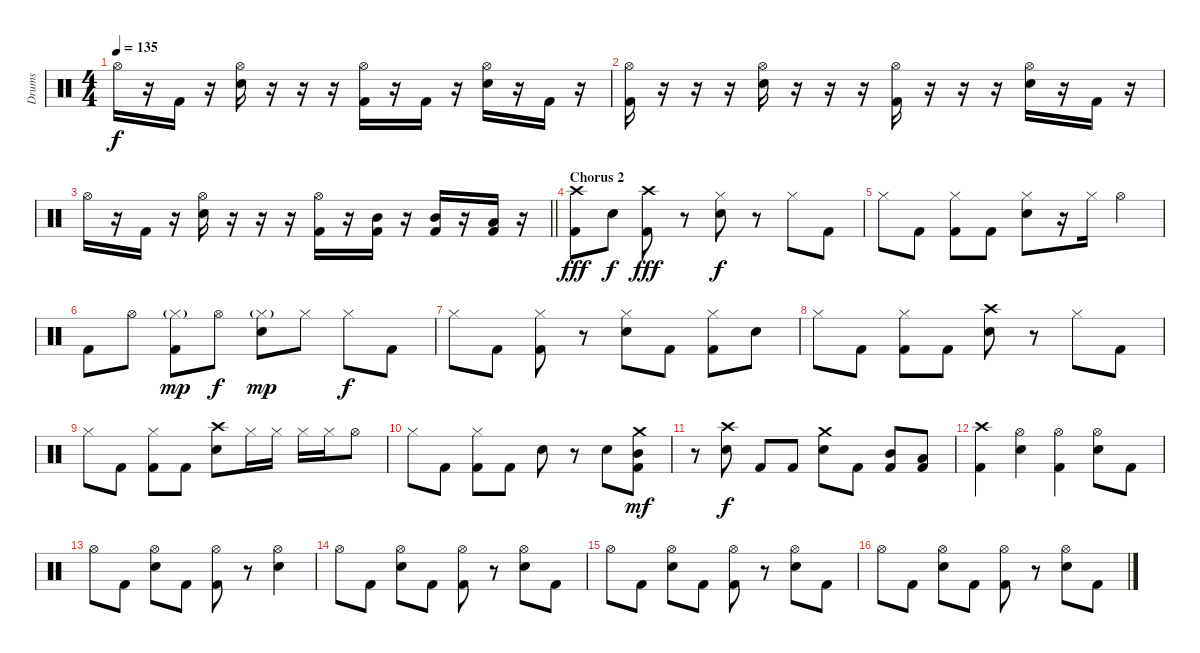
\track ("Drums" "Drums") {instrument percussion}
\staff {score}
\articulation defaults
\ts (4 4)
\tempo 135
\clef neutral
\ks c "Hi-Hat (open)".16{dy f}
r.16 "Kick (hit) 2".16 r.16 ("Hi-Hat (open)" "Electric Snare (hit)").16 r.16 r.16 r.16 ("Hi-Hat (open)" "Kick (hit) 2").16 r.16 "Kick (hit) 2".16 r.16 ("Hi-Hat (open)" "Electric Snare (hit)").16 r.16 "Kick (hit) 2".16 r.16 |
("Hi-Hat (open)" "Kick (hit) 2").16 r.16 r.16 r.16 ("Hi-Hat (open)" "Electric Snare (hit)").16 r.16 r.16 r.16 ("Hi-Hat (open)" "Kick (hit) 2").16 r.16 r.16 r.16 ("Hi-Hat (open)" "Electric Snare (hit)").16 r.16 "Kick (hit) 2".16 r.16 |
\barLineRight lightlight "Hi-Hat (open)".16
r.16 "Kick (hit) 2".16 r.16 ("Hi-Hat (open)" "Electric Snare (hit)").16 r.16 r.16 r.16 ("Hi-Hat (open)" "Kick (hit) 2").16 r.16 ("Mid Tom (hit)" "Kick (hit) 2").16 r.16 ("Mid Tom (hit)" "Kick (hit) 2").16 r.16 ("Low Tom (hit)" "Kick (hit) 2").16 r.16 |
\section ("" "Chorus 2")
("Crash high (hit)" "Kick (hit) 2").8{dy fff} "Electric Snare (hit)".8{dy f} ("Crash high (hit)" "Kick (hit) 2").8{dy fff} r.8 ("Hi-Hat (closed)" "Electric Snare (hit)").8{dy f} r.8 "Hi-Hat (closed)".8 "Kick (hit) 2".8 |
"Hi-Hat (closed)".8 "Kick (hit) 2".8 ("Hi-Hat (closed)" "Kick (hit) 2").8 "Kick (hit) 2".8 ("Hi-Hat (closed)" "Electric Snare (hit)").8 r.16 "Hi-Hat (closed)".16 "Hi-Hat (open)".4 |
"Kick (hit) 2".8 "Hi-Hat (open)".8 ("Hi-Hat (closed)"{g} "Kick (hit) 2").8{dy mp} "Hi-Hat (open)".8{dy f} ("Hi-Hat (closed)"{g} "Electric Snare (hit)").8{dy mp} "Hi-Hat (closed)".8 "Hi-Hat (closed)".8{dy f} "Kick (hit) 2".8 |
"Hi-Hat (closed)".8 "Kick (hit) 2".8 ("Hi-Hat (closed)" "Kick (hit) 2").8 r.8 ("Hi-Hat (closed)" "Electric Snare (hit)").8 "Kick (hit) 2".8 ("Hi-Hat (closed)" "Kick (hit) 2").8 "Electric Snare (hit)".8 |
"Hi-Hat (closed)".8 "Kick (hit) 2".8 ("Hi-Hat (closed)" "Kick (hit) 2").8 "Kick (hit) 2".8 ("Crash high (hit)" "Electric Snare (hit)").8 r.8 "Hi-Hat (closed)".8 "Kick (hit) 2".8 |
"Hi-Hat (closed)".8 "Kick (hit) 2".8 ("Hi-Hat (closed)" "Kick (hit) 2").8 "Kick (hit) 2".8 ("Crash high (hit)" "Electric Snare (hit)").8 "Hi-Hat (closed)".16 "Hi-Hat (closed)".16 "Hi-Hat (closed)".16 "Hi-Hat (closed)".16 "Hi-Hat (open)".8 |
"Hi-Hat (closed)".8 "Kick (hit) 2".8 ("Hi-Hat (closed)" "Kick (hit) 2").8 "Kick (hit) 2".8 "Electric Snare (hit)".8 r.8 "Electric Snare (hit)".8 ("Crash medium (hit)" "Mid Tom (hit)" "Kick (hit) 2").8{dy mf} |
r.8 ("Crash high (hit)" "Electric Snare (hit)").8{dy f} "Kick (hit) 2".8 "Kick (hit) 2".8 ("Crash medium (hit)" "Electric Snare (hit)").8 "Kick (hit) 2".8 ("Mid Tom (hit)" "Kick (hit) 2").8 ("Low Tom (hit)" "Kick (hit) 2").8 |
("Crash high (hit)" "Kick (hit) 2").4 ("Hi-Hat (open)" "Electric Snare (hit)").4 ("Hi-Hat (open)" "Kick (hit) 2").4 ("Hi-Hat (open)" "Electric Snare (hit)").8 "Kick (hit) 2".8 |
"Hi-Hat (open)".8 "Kick (hit) 2".8 ("Hi-Hat (open)" "Electric Snare (hit)").8 "Kick (hit) 2".8 ("Hi-Hat (open)" "Kick (hit) 2").8 r.8 ("Hi-Hat (open)" "Electric Snare (hit)").4 |
"Hi-Hat (open)".8 "Kick (hit) 2".8 ("Hi-Hat (open)" "Electric Snare (hit)").8 "Kick (hit) 2".8 ("Hi-Hat (open)" "Kick (hit) 2").8 r.8 ("Hi-Hat (open)" "Electric Snare (hit)").8 "Kick (hit) 2".8 |
"Hi-Hat (open)".8 "Kick (hit) 2".8 ("Hi-Hat (open)" "Electric Snare (hit)").8 "Kick (hit) 2".8 ("Hi-Hat (open)" "Kick (hit) 2").8 r.8 ("Hi-Hat (open)" "Electric Snare (hit)").8 "Kick (hit) 2".8 |
"Hi-Hat (open)".8 "Kick (hit) 2".8 ("Hi-Hat (open)" "Electric Snare (hit)").8 "Kick (hit) 2".8 ("Hi-Hat (open)" "Kick (hit) 2").8 r.8 ("Hi-Hat (open)" "Electric Snare (hit)").8 "Kick (hit) 2".8
